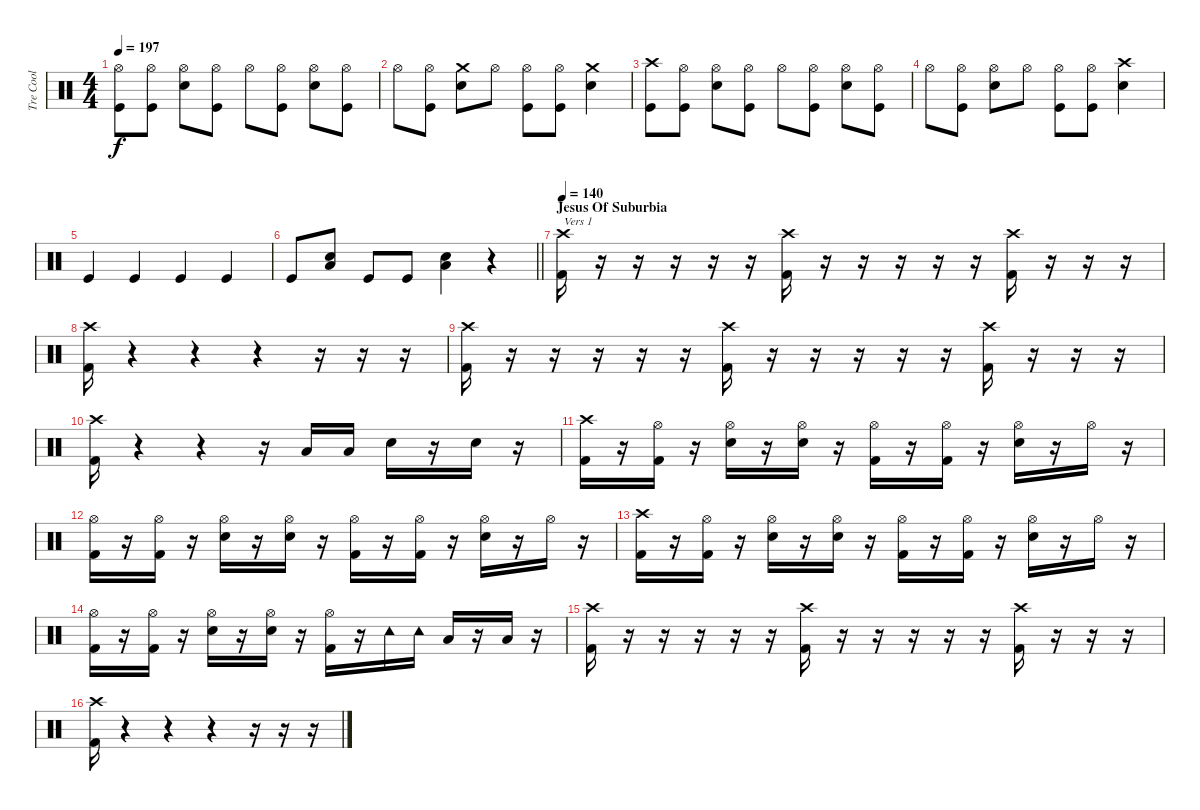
\track ("Tre Cool" "Tre Cool") {instrument percussion}
\staff {score}
\articulation defaults
\ts (4 4)
\tempo 197
\clef neutral
\ks c
("Hi-Hat (open)" "Kick (hit)").8{dy f} ("Hi-Hat (open)" "Kick (hit)").8 ("Hi-Hat (open)" "Electric Snare (hit)").8 ("Hi-Hat (open)" "Kick (hit)").8 "Hi-Hat (open)".8 ("Hi-Hat (open)" "Kick (hit)").8 ("Hi-Hat (open)" "Electric Snare (hit)").8 ("Hi-Hat (open)" "Kick (hit)").8 |
"Hi-Hat (open)".8 ("Hi-Hat (open)" "Kick (hit)").8 ("Crash medium (hit)" "Electric Snare (hit)").8 "Hi-Hat (open)".8 ("Hi-Hat (open)" "Kick (hit)").8 ("Hi-Hat (open)" "Kick (hit)").8 ("Crash medium (hit)" "Electric Snare (hit)").4 |
("Crash high (hit)" "Kick (hit)").8 ("Hi-Hat (open)" "Kick (hit)").8 ("Hi-Hat (open)" "Electric Snare (hit)").8 ("Hi-Hat (open)" "Kick (hit)").8 "Hi-Hat (open)".8 ("Hi-Hat (open)" "Kick (hit)").8 ("Hi-Hat (open)" "Electric Snare (hit)").8 ("Hi-Hat (open)" "Kick (hit)").8 |
"Hi-Hat (open)".8 ("Hi-Hat (open)" "Kick (hit)").8 ("Hi-Hat (open)" "Electric Snare (hit)").8 "Hi-Hat (open)".8 ("Hi-Hat (open)" "Kick (hit)").8 ("Hi-Hat (open)" "Kick (hit)").8 ("Crash high (hit)" "Electric Snare (hit)").4 |
"Kick (hit)".4 "Kick (hit)".4 "Kick (hit)".4 "Kick (hit)".4 |
\barLineRight lightlight "Kick (hit)".8
("Electric Snare (hit)" "Low Floor Tom (hit)").8 "Kick (hit)".8 "Kick (hit)".8 ("Electric Snare (hit)" "Low Floor Tom (hit)").4 r.4 |
\section ("" "Jesus Of Suburbia")
\tempo 140
("Crash high (hit)" "Kick (hit) 2").16{txt "Vers 1"} r.16 r.16 r.16 r.16 r.16 ("Crash high (hit)" "Kick (hit) 2").16 r.16 r.16 r.16 r.16 r.16 ("Crash high (hit)" "Kick (hit) 2").16 r.16 r.16 r.16 |
("Crash high (hit)" "Kick (hit) 2").16 r.4 r.4 r.4 r.16 r.16 r.16 |
("Crash high (hit)" "Kick (hit) 2").16 r.16 r.16 r.16 r.16 r.16 ("Crash high (hit)" "Kick (hit) 2").16 r.16 r.16 r.16 r.16 r.16 ("Crash high (hit)" "Kick (hit) 2").16 r.16 r.16 r.16 |
("Crash high (hit)" "Kick (hit) 2").16 r.4 r.4 r.16 "Low Floor Tom (hit)".16 "Low Floor Tom (hit)".16 "Snare (hit) 2".16 r.16 "Snare (hit) 2".16 r.16 |
("Crash high (hit)" "Kick (hit) 2").16 r.16 ("Hi-Hat (open)" "Kick (hit) 2").16 r.16 ("Hi-Hat (open)" "Snare (hit) 2").16 r.16 ("Hi-Hat (open)" "Snare (hit) 2").16 r.16 ("Hi-Hat (open)" "Kick (hit) 2").16 r.16 ("Hi-Hat (open)" "Kick (hit) 2").16 r.16 ("Hi-Hat (open)" "Snare (hit) 2").16 r.16 "Hi-Hat (open)".16 r.16 |
("Hi-Hat (open)" "Kick (hit) 2").16 r.16 ("Hi-Hat (open)" "Kick (hit) 2").16 r.16 ("Hi-Hat (open)" "Snare (hit) 2").16 r.16 ("Hi-Hat (open)" "Snare (hit) 2").16 r.16 ("Hi-Hat (open)" "Kick (hit) 2").16 r.16 ("Hi-Hat (open)" "Kick (hit) 2").16 r.16 ("Hi-Hat (open)" "Snare (hit) 2").16 r.16 "Hi-Hat (open)".16 r.16 |
("Crash high (hit)" "Kick (hit) 2").16 r.16 ("Hi-Hat (open)" "Kick (hit) 2").16 r.16 ("Hi-Hat (open)" "Snare (hit) 2").16 r.16 ("Hi-Hat (open)" "Snare (hit) 2").16 r.16 ("Hi-Hat (open)" "Kick (hit) 2").16 r.16 ("Hi-Hat (open)" "Kick (hit) 2").16 r.16 ("Hi-Hat (open)" "Snare (hit) 2").16 r.16 "Hi-Hat (open)".16 r.16 |
("Hi-Hat (open)" "Kick (hit) 2").16 r.16 ("Hi-Hat (open)" "Kick (hit) 2").16 r.16 ("Hi-Hat (open)" "Snare (hit) 2").16 r.16 ("Hi-Hat (open)" "Snare (hit) 2").16 r.16 ("Hi-Hat (open)" "Kick (hit) 2").16 r.16 "Tambourine (hit)".16 "Tambourine (hit)".16 "Low Floor Tom (hit)".16 r.16 "Low Floor Tom (hit)".16 r.16 |
("Crash high (hit)" "Kick (hit) 2").16 r.16 r.16 r.16 r.16 r.16 ("Crash high (hit)" "Kick (hit) 2").16 r.16 r.16 r.16 r.16 r.16 ("Crash high (hit)" "Kick (hit) 2").16 r.16 r.16 r.16 |
("Crash high (hit)" "Kick (hit) 2").16 r.4 r.4 r.4 r.16 r.16 r.16
